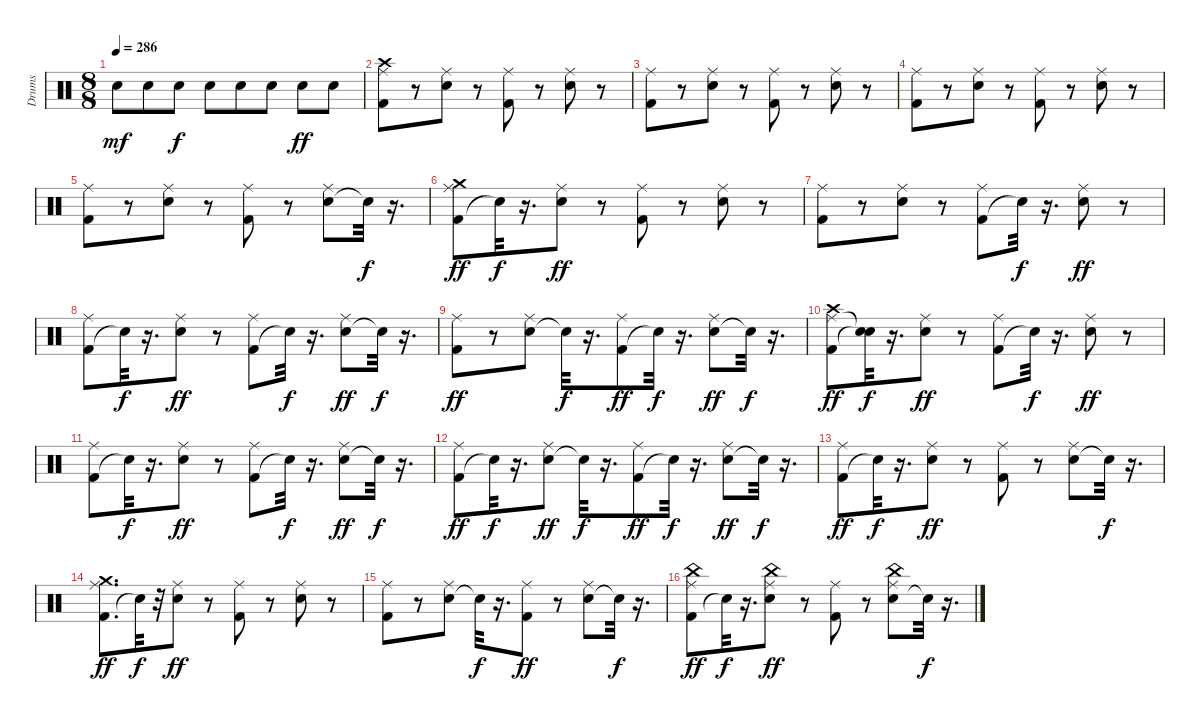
\track ("Drums" "Drums") {instrument percussion}
\staff {score}
\articulation defaults
\ts (8 8)
\tempo 286
\clef neutral
\ks c "Snare (hit) 2".8{dy mf} "Snare (hit) 2".8 "Snare (hit) 2".8{dy f} "Snare (hit) 2".8 "Snare (hit) 2".8 "Snare (hit) 2".8 "Snare (hit) 2".8{dy ff} "Snare (hit) 2".8
|
("Kick (hit) 2" "Ride (middle)" "Crash high (hit)").8 r.8 ("Snare (hit) 2" "Ride (middle)").8 r.8 ("Kick (hit) 2" "Ride (middle)").8 r.8 ("Snare (hit) 2" "Ride (middle)").8 r.8 |
("Kick (hit) 2" "Ride (middle)").8 r.8 ("Snare (hit) 2" "Ride (middle)").8 r.8 ("Kick (hit) 2" "Ride (middle)").8 r.8 ("Snare (hit) 2" "Ride (middle)").8 r.8 |
("Kick (hit) 2" "Ride (middle)").8 r.8 ("Snare (hit) 2" "Ride (middle)").8 r.8 ("Kick (hit) 2" "Ride (middle)").8 r.8 ("Snare (hit) 2" "Ride (middle)").8 r.8 |
("Kick (hit) 2" "Ride (middle)").8 r.8 ("Snare (hit) 2" "Ride (middle)").8 r.8 ("Kick (hit) 2" "Ride (middle)").8 r.8 ("Snare (hit) 2" "Ride (middle)").8 "Snare (hit)"{t}.32{dy f} r.16{d} |
("Kick (hit) 2" "Ride (middle)" "Crash medium (hit)").8{dy ff} "Snare (hit)"{t}.32{dy f} r.16{d} ("Snare (hit) 2" "Ride (middle)").8{dy ff} r.8 ("Kick (hit) 2" "Ride (middle)").8 r.8 ("Snare (hit) 2" "Ride (middle)").8 r.8 |
("Kick (hit) 2" "Ride (middle)").8 r.8 ("Snare (hit) 2" "Ride (middle)").8 r.8 ("Kick (hit) 2" "Ride (middle)").8 "Snare (hit)"{t}.32{dy f} r.16{d} ("Snare (hit) 2" "Ride (middle)").8{dy ff} r.8 |
("Kick (hit) 2" "Ride (middle)").8 "Snare (hit)"{t}.32{dy f} r.16{d} ("Snare (hit) 2" "Ride (middle)").8{dy ff} r.8 ("Kick (hit) 2" "Ride (middle)").8 "Snare (hit)"{t}.32{dy f} r.16{d} ("Snare (hit) 2" "Ride (middle)").8{dy ff} "Snare (hit)"{t}.32{dy f} r.16{d} |
("Kick (hit) 2" "Ride (middle)").8{dy ff} r.8 ("Snare (hit) 2" "Ride (middle)").8 "Snare (hit)"{t}.32{dy f} r.16{d} ("Kick (hit) 2" "Ride (middle)").8{dy ff} "Snare (hit)"{t}.32{dy f} r.16{d} ("Snare (hit) 2" "Ride (middle)").8{dy ff} "Snare (hit)"{t}.32{dy f} r.16{d} |
("Kick (hit) 2" "Ride (middle)" "Crash high (hit)").8{dy ff} ("Snare (hit)"{t} "Snare (hit)"{t}).32{dy f} r.16{d} ("Snare (hit) 2" "Ride (middle)").8{dy ff} r.8 ("Kick (hit) 2" "Ride (middle)").8 "Snare (hit)"{t}.32{dy f} r.16{d} ("Snare (hit) 2" "Ride (middle)").8{dy ff} r.8 |
("Kick (hit) 2" "Ride (middle)").8 "Snare (hit)"{t}.32{dy f} r.16{d} ("Snare (hit) 2" "Ride (middle)").8{dy ff} r.8 ("Kick (hit) 2" "Ride (middle)").8 "Snare (hit)"{t}.32{dy f} r.16{d} ("Snare (hit) 2" "Ride (middle)").8{dy ff} "Snare (hit)"{t}.32{dy f} r.16{d} |
("Kick (hit) 2" "Ride (middle)").8{dy ff} "Snare (hit)"{t}.32{dy f} r.16{d} ("Snare (hit) 2" "Ride (middle)").8{dy ff} "Snare (hit)"{t}.32{dy f} r.16{d} ("Kick (hit) 2" "Ride (middle)").8{dy ff} "Snare (hit)"{t}.32{dy f} r.16{d} ("Snare (hit) 2" "Ride (middle)").8{dy ff} "Snare (hit)"{t}.32{dy f} r.16{d} |
("Kick (hit) 2" "Ride (middle)").8{dy ff} "Snare (hit)"{t}.32{dy f} r.16{d} ("Snare (hit) 2" "Ride (middle)").8{dy ff} r.8 ("Kick (hit) 2" "Ride (middle)").8 r.8 ("Snare (hit) 2" "Ride (middle)").8 "Snare (hit)"{t}.32{dy f} r.16{d} |
("Kick (hit) 2" "Ride (middle)" "Crash medium (hit)").8{d dy ff} "Snare (hit)"{t}.32{dy f} r.32 ("Snare (hit) 2" "Ride (middle)").8{dy ff} r.8 ("Kick (hit) 2" "Ride (middle)").8 r.8 ("Snare (hit) 2" "Ride (middle)").8 r.8 |
("Kick (hit) 2" "Ride (middle)").8 r.8 ("Snare (hit) 2" "Ride (middle)").8 "Snare (hit)"{t}.32{dy f} r.16{d} ("Kick (hit) 2" "Ride (middle)").8{dy ff} r.8 ("Snare (hit) 2" "Ride (middle)").8 "Snare (hit)"{t}.32{dy f} r.16{d} |
("Kick (hit) 2" "Ride (middle)" "China (hit)").8{dy ff} "Snare (hit)"{t}.32{dy f} r.16{d} ("Snare (hit) 2" "Ride (middle)" "China (hit)").8{dy ff} r.8 ("Kick (hit) 2" "Ride (middle)").8 r.8 ("Snare (hit) 2" "Ride (middle)" "China (hit)").8 "Snare (hit)"{t}.32{dy f} r.16{d}
